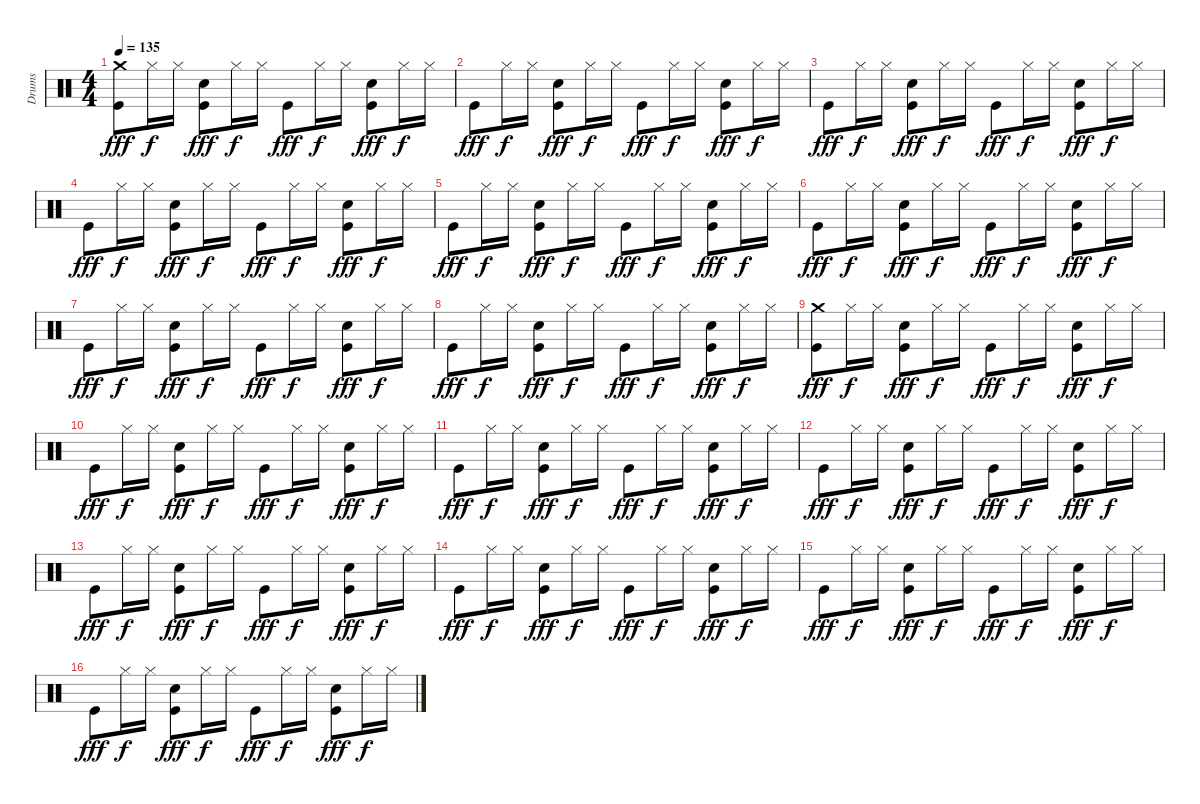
\track ("Drums" "Drums") {instrument percussion}
\staff {score}
\articulation defaults
\ts (4 4)
\tempo 135
\clef neutral
\ks c
("Kick (hit)" "Crash medium (hit)").8{dy fff} "Hi-Hat (closed)".16{dy f} "Hi-Hat (closed)".16 ("Kick (hit)" "Snare (hit) 2").8{dy fff} "Hi-Hat (closed)".16{dy f} "Hi-Hat (closed)".16 "Kick (hit)".8{dy fff} "Hi-Hat (closed)".16{dy f} "Hi-Hat (closed)".16 ("Kick (hit)" "Snare (hit) 2").8{dy fff} "Hi-Hat (closed)".16{dy f} "Hi-Hat (closed)".16 |
"Kick (hit)".8{dy fff} "Hi-Hat (closed)".16{dy f} "Hi-Hat (closed)".16 ("Kick (hit)" "Snare (hit) 2").8{dy fff} "Hi-Hat (closed)".16{dy f} "Hi-Hat (closed)".16 "Kick (hit)".8{dy fff} "Hi-Hat (closed)".16{dy f} "Hi-Hat (closed)".16 ("Kick (hit)" "Snare (hit) 2").8{dy fff} "Hi-Hat (closed)".16{dy f} "Hi-Hat (closed)".16 |
"Kick (hit)".8{dy fff} "Hi-Hat (closed)".16{dy f} "Hi-Hat (closed)".16 ("Kick (hit)" "Snare (hit) 2").8{dy fff} "Hi-Hat (closed)".16{dy f} "Hi-Hat (closed)".16 "Kick (hit)".8{dy fff} "Hi-Hat (closed)".16{dy f} "Hi-Hat (closed)".16 ("Kick (hit)" "Snare (hit) 2").8{dy fff} "Hi-Hat (closed)".16{dy f} "Hi-Hat (closed)".16 |
"Kick (hit)".8{dy fff} "Hi-Hat (closed)".16{dy f} "Hi-Hat (closed)".16 ("Kick (hit)" "Snare (hit) 2").8{dy fff} "Hi-Hat (closed)".16{dy f} "Hi-Hat (closed)".16 "Kick (hit)".8{dy fff} "Hi-Hat (closed)".16{dy f} "Hi-Hat (closed)".16 ("Kick (hit)" "Snare (hit) 2").8{dy fff} "Hi-Hat (closed)".16{dy f} "Hi-Hat (closed)".16 |
"Kick (hit)".8{dy fff} "Hi-Hat (closed)".16{dy f} "Hi-Hat (closed)".16 ("Kick (hit)" "Snare (hit) 2").8{dy fff} "Hi-Hat (closed)".16{dy f} "Hi-Hat (closed)".16 "Kick (hit)".8{dy fff} "Hi-Hat (closed)".16{dy f} "Hi-Hat (closed)".16 ("Kick (hit)" "Snare (hit) 2").8{dy fff} "Hi-Hat (closed)".16{dy f} "Hi-Hat (closed)".16 |
"Kick (hit)".8{dy fff} "Hi-Hat (closed)".16{dy f} "Hi-Hat (closed)".16 ("Kick (hit)" "Snare (hit) 2").8{dy fff} "Hi-Hat (closed)".16{dy f} "Hi-Hat (closed)".16 "Kick (hit)".8{dy fff} "Hi-Hat (closed)".16{dy f} "Hi-Hat (closed)".16 ("Kick (hit)" "Snare (hit) 2").8{dy fff} "Hi-Hat (closed)".16{dy f} "Hi-Hat (closed)".16 |
"Kick (hit)".8{dy fff} "Hi-Hat (closed)".16{dy f} "Hi-Hat (closed)".16 ("Kick (hit)" "Snare (hit) 2").8{dy fff} "Hi-Hat (closed)".16{dy f} "Hi-Hat (closed)".16 "Kick (hit)".8{dy fff} "Hi-Hat (closed)".16{dy f} "Hi-Hat (closed)".16 ("Kick (hit)" "Snare (hit) 2").8{dy fff} "Hi-Hat (closed)".16{dy f} "Hi-Hat (closed)".16 |
"Kick (hit)".8{dy fff} "Hi-Hat (closed)".16{dy f} "Hi-Hat (closed)".16 ("Kick (hit)" "Snare (hit) 2").8{dy fff} "Hi-Hat (closed)".16{dy f} "Hi-Hat (closed)".16 "Kick (hit)".8{dy fff} "Hi-Hat (closed)".16{dy f} "Hi-Hat (closed)".16 ("Kick (hit)" "Snare (hit) 2").8{dy fff} "Hi-Hat (closed)".16{dy f} "Hi-Hat (closed)".16 |
("Kick (hit)" "Crash medium (hit)").8{dy fff} "Hi-Hat (closed)".16{dy f} "Hi-Hat (closed)".16 ("Kick (hit)" "Snare (hit) 2").8{dy fff} "Hi-Hat (closed)".16{dy f} "Hi-Hat (closed)".16 "Kick (hit)".8{dy fff} "Hi-Hat (closed)".16{dy f} "Hi-Hat (closed)".16 ("Kick (hit)" "Snare (hit) 2").8{dy fff} "Hi-Hat (closed)".16{dy f} "Hi-Hat (closed)".16 |
"Kick (hit)".8{dy fff} "Hi-Hat (closed)".16{dy f} "Hi-Hat (closed)".16 ("Kick (hit)" "Snare (hit) 2").8{dy fff} "Hi-Hat (closed)".16{dy f} "Hi-Hat (closed)".16 "Kick (hit)".8{dy fff} "Hi-Hat (closed)".16{dy f} "Hi-Hat (closed)".16 ("Kick (hit)" "Snare (hit) 2").8{dy fff} "Hi-Hat (closed)".16{dy f} "Hi-Hat (closed)".16 |
"Kick (hit)".8{dy fff} "Hi-Hat (closed)".16{dy f} "Hi-Hat (closed)".16 ("Kick (hit)" "Snare (hit) 2").8{dy fff} "Hi-Hat (closed)".16{dy f} "Hi-Hat (closed)".16 "Kick (hit)".8{dy fff} "Hi-Hat (closed)".16{dy f} "Hi-Hat (closed)".16 ("Kick (hit)" "Snare (hit) 2").8{dy fff} "Hi-Hat (closed)".16{dy f} "Hi-Hat (closed)".16 |
"Kick (hit)".8{dy fff} "Hi-Hat (closed)".16{dy f} "Hi-Hat (closed)".16 ("Kick (hit)" "Snare (hit) 2").8{dy fff} "Hi-Hat (closed)".16{dy f} "Hi-Hat (closed)".16 "Kick (hit)".8{dy fff} "Hi-Hat (closed)".16{dy f} "Hi-Hat (closed)".16 ("Kick (hit)" "Snare (hit) 2").8{dy fff} "Hi-Hat (closed)".16{dy f} "Hi-Hat (closed)".16 |
"Kick (hit)".8{dy fff} "Hi-Hat (closed)".16{dy f} "Hi-Hat (closed)".16 ("Kick (hit)" "Snare (hit) 2").8{dy fff} "Hi-Hat (closed)".16{dy f} "Hi-Hat (closed)".16 "Kick (hit)".8{dy fff} "Hi-Hat (closed)".16{dy f} "Hi-Hat (closed)".16 ("Kick (hit)" "Snare (hit) 2").8{dy fff} "Hi-Hat (closed)".16{dy f} "Hi-Hat (closed)".16 |
"Kick (hit)".8{dy fff} "Hi-Hat (closed)".16{dy f} "Hi-Hat (closed)".16 ("Kick (hit)" "Snare (hit) 2").8{dy fff} "Hi-Hat (closed)".16{dy f} "Hi-Hat (closed)".16 "Kick (hit)".8{dy fff} "Hi-Hat (closed)".16{dy f} "Hi-Hat (closed)".16 ("Kick (hit)" "Snare (hit) 2").8{dy fff} "Hi-Hat (closed)".16{dy f} "Hi-Hat (closed)".16 |
"Kick (hit)".8{dy fff} "Hi-Hat (closed)".16{dy f} "Hi-Hat (closed)".16 ("Kick (hit)" "Snare (hit) 2").8{dy fff} "Hi-Hat (closed)".16{dy f} "Hi-Hat (closed)".16 "Kick (hit)".8{dy fff} "Hi-Hat (closed)".16{dy f} "Hi-Hat (closed)".16 ("Kick (hit)" "Snare (hit) 2").8{dy fff} "Hi-Hat (closed)".16{dy f} "Hi-Hat (closed)".16 |
"Kick (hit)".8{dy fff} "Hi-Hat (closed)".16{dy f} "Hi-Hat (closed)".16 ("Kick (hit)" "Snare (hit) 2").8{dy fff} "Hi-Hat (closed)".16{dy f} "Hi-Hat (closed)".16 "Kick (hit)".8{dy fff} "Hi-Hat (closed)".16{dy f} "Hi-Hat (closed)".16 ("Kick (hit)" "Snare (hit) 2").8{dy fff} "Hi-Hat (closed)".16{dy f} "Hi-Hat (closed)".16
